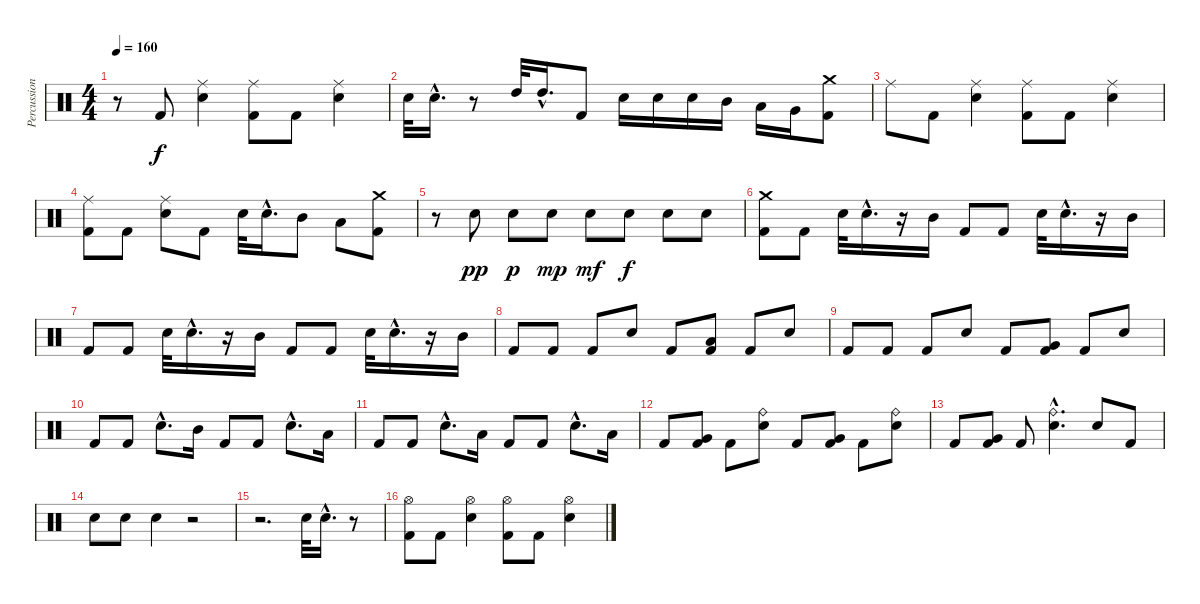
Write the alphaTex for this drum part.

\track ("Percussions" "Percussion") {instrument percussion}
\staff {score}
\articulation defaults
\ts (4 4)
\tempo 160
\clef neutral
\ks c
r.8{dy f} "Kick (hit) 2".8 ("Electric Snare (hit)" "Ride (middle)").4 ("Kick (hit) 2" "Ride (middle)").8 "Kick (hit) 2".8 ("Electric Snare (hit)" "Ride (middle)").4 |
"Electric Snare (hit)".32 "Electric Snare (hit)"{hac}.16{d} r.8 "High Tom (hit)".32 "High Tom (hit)"{hac}.16{d} "Kick (hit) 2".8 "Electric Snare (hit)".16 "Electric Snare (hit)".16 "Electric Snare (hit)".16 "Mid Tom (hit)".16 "Low Tom (hit)".16 "Very Low Tom (hit)".16 ("Kick (hit) 2" "Crash medium (hit)").8 |
"Ride (middle)".8 "Kick (hit) 2".8 ("Electric Snare (hit)" "Ride (middle)").4 ("Kick (hit) 2" "Ride (middle)").8 "Kick (hit) 2".8 ("Electric Snare (hit)" "Ride (middle)").4 |
("Kick (hit) 2" "Ride (middle)").8 "Kick (hit) 2".8 ("Electric Snare (hit)" "Ride (middle)").8 "Kick (hit) 2".8 "Electric Snare (hit)".32 "Electric Snare (hit)"{hac}.16{d} "Mid Tom (hit)".8 "Low Tom (hit)".8 ("Kick (hit) 2" "Crash medium (hit)").8 |
r.8 "Electric Snare (hit)".8{dy pp} "Electric Snare (hit)".8{dy p} "Electric Snare (hit)".8{dy mp} "Electric Snare (hit)".8{dy mf} "Electric Snare (hit)".8{dy f} "Electric Snare (hit)".8 "Electric Snare (hit)".8 |
("Kick (hit) 2" "Crash medium (hit)").8 "Kick (hit) 2".8 "Electric Snare (hit)".32 "Electric Snare (hit)"{hac}.16{d} r.16 "Mid Tom (hit)".16 "Kick (hit) 2".8 "Kick (hit) 2".8 "Electric Snare (hit)".32 "Electric Snare (hit)"{hac}.16{d} r.16 "Mid Tom (hit)".16 |
"Kick (hit) 2".8 "Kick (hit) 2".8 "Electric Snare (hit)".32 "Electric Snare (hit)"{hac}.16{d} r.16 "Mid Tom (hit)".16 "Kick (hit) 2".8 "Kick (hit) 2".8 "Electric Snare (hit)".32 "Electric Snare (hit)"{hac}.16{d} r.16 "Mid Tom (hit)".16 |
"Kick (hit) 2".8 "Kick (hit) 2".8 "Kick (hit) 2".8 "Electric Snare (hit)".8 "Kick (hit) 2".8 ("Kick (hit) 2" "Low Tom (hit)").8 "Kick (hit) 2".8 "Electric Snare (hit)".8 |
"Kick (hit) 2".8 "Kick (hit) 2".8 "Kick (hit) 2".8 "Electric Snare (hit)".8 "Kick (hit) 2".8 ("Kick (hit) 2" "Very Low Tom (hit)").8 "Kick (hit) 2".8 "Electric Snare (hit)".8 |
"Kick (hit) 2".8 "Kick (hit) 2".8 "Electric Snare (hit)"{hac}.8{d} "Mid Tom (hit)".16 "Kick (hit) 2".8 "Kick (hit) 2".8 "Electric Snare (hit)"{hac}.8{d} "Low Tom (hit)".16 |
"Kick (hit) 2".8 "Kick (hit) 2".8 "Electric Snare (hit)"{hac}.8{d} "Low Tom (hit)".16 "Kick (hit) 2".8 "Kick (hit) 2".8 "Electric Snare (hit)"{hac}.8{d} "Low Tom (hit)".16 |
"Kick (hit) 2".8 ("Kick (hit) 2" "Very Low Tom (hit)").8 "Kick (hit) 2".8 ("Electric Snare (hit)" "Ride (bell)").8 "Kick (hit) 2".8 ("Kick (hit) 2" "Very Low Tom (hit)").8 "Kick (hit) 2".8 ("Electric Snare (hit)" "Ride (bell)").8 |
"Kick (hit) 2".8 ("Kick (hit) 2" "Very Low Tom (hit)").8 "Kick (hit) 2".8 ("Electric Snare (hit)"{hac} "Ride (bell)"{hac}).4{d} "Electric Snare (hit)".8 "Kick (hit) 2".8 |
"Electric Snare (hit)".8 "Electric Snare (hit)".8 "Electric Snare (hit)".4 r.2 |
r.2{d} "Electric Snare (hit)".32 "Electric Snare (hit)"{hac}.16{d} r.8 |
("Kick (hit) 2" "Hi-Hat (open)").8 "Kick (hit) 2".8 ("Electric Snare (hit)" "Hi-Hat (open)").4 ("Kick (hit) 2" "Hi-Hat (open)").8 "Kick (hit) 2".8 ("Electric Snare (hit)" "Hi-Hat (open)").4
